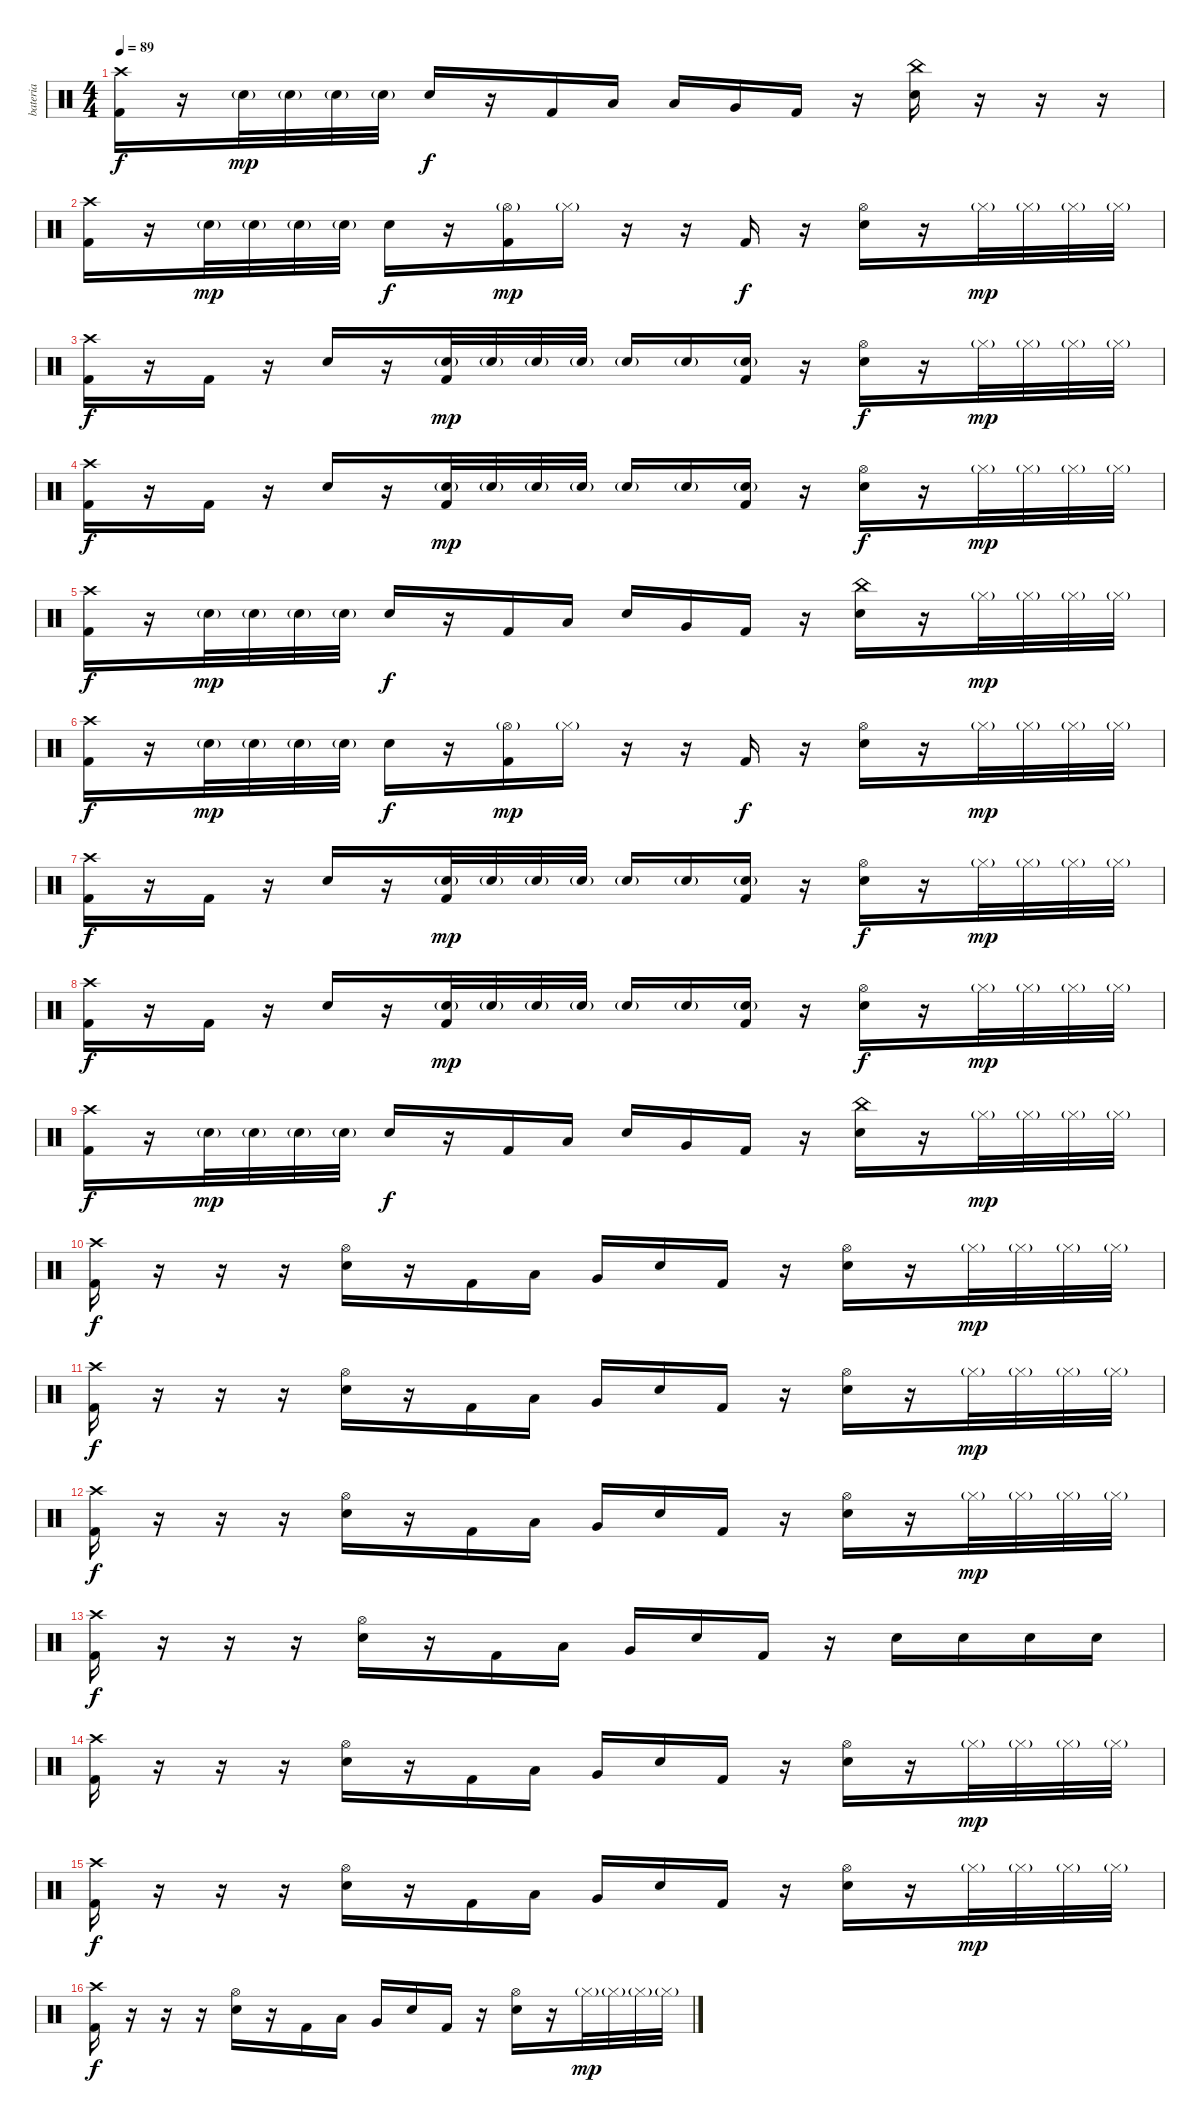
\track ("bateria" "bateria") {instrument percussion}
\staff {score}
\articulation defaults
\ts (4 4)
\tempo 89
\clef neutral
\ks c
("Crash high (hit)" "Kick (hit) 2").16{dy f} r.16 "Electric Snare (hit)"{g}.32{dy mp} "Electric Snare (hit)"{g}.32 "Electric Snare (hit)"{g}.32 "Electric Snare (hit)"{g}.32 "Electric Snare (hit)".16{dy f} r.16 "Kick (hit) 2".16 "Low Tom (hit)".16 "Low Tom (hit)".16 "Very Low Tom (hit)".16 "Kick (hit) 2".16 r.16 ("China (hit)" "Electric Snare (hit)").16 r.16 r.16 r.16 |
("Crash high (hit)" "Kick (hit) 2").16 r.16 "Electric Snare (hit)"{g}.32{dy mp} "Electric Snare (hit)"{g}.32 "Electric Snare (hit)"{g}.32 "Electric Snare (hit)"{g}.32 "Electric Snare (hit)".16{dy f} r.16 ("Hi-Hat (open)"{g} "Kick (hit) 2").16{dy mp} "Hi-Hat (closed)"{g}.16 r.16 r.16 "Kick (hit) 2".16{dy f} r.16 ("Hi-Hat (open)" "Electric Snare (hit)").16 r.16 "Hi-Hat (closed)"{g}.32{dy mp} "Hi-Hat (closed)"{g}.32 "Hi-Hat (closed)"{g}.32 "Hi-Hat (closed)"{g}.32 |
("Crash high (hit)" "Kick (hit) 2").16{dy f} r.16 "Kick (hit) 2".16 r.16 "Electric Snare (hit)".16 r.16 ("Electric Snare (hit)"{g} "Kick (hit) 2").32{dy mp} "Electric Snare (hit)"{g}.32 "Electric Snare (hit)"{g}.32 "Electric Snare (hit)"{g}.32 "Electric Snare (hit)"{g}.16 "Electric Snare (hit)"{g}.16 ("Electric Snare (hit)"{g} "Kick (hit) 2").16 r.16 ("Hi-Hat (open)" "Electric Snare (hit)").16{dy f} r.16 "Hi-Hat (closed)"{g}.32{dy mp} "Hi-Hat (closed)"{g}.32 "Hi-Hat (closed)"{g}.32 "Hi-Hat (closed)"{g}.32 |
("Crash high (hit)" "Kick (hit) 2").16{dy f} r.16 "Kick (hit) 2".16 r.16 "Electric Snare (hit)".16 r.16 ("Electric Snare (hit)"{g} "Kick (hit) 2").32{dy mp} "Electric Snare (hit)"{g}.32 "Electric Snare (hit)"{g}.32 "Electric Snare (hit)"{g}.32 "Electric Snare (hit)"{g}.16 "Electric Snare (hit)"{g}.16 ("Electric Snare (hit)"{g} "Kick (hit) 2").16 r.16 ("Hi-Hat (open)" "Electric Snare (hit)").16{dy f} r.16 "Hi-Hat (closed)"{g}.32{dy mp} "Hi-Hat (closed)"{g}.32 "Hi-Hat (closed)"{g}.32 "Hi-Hat (closed)"{g}.32 |
("Crash high (hit)" "Kick (hit) 2").16{dy f} r.16 "Electric Snare (hit)"{g}.32{dy mp} "Electric Snare (hit)"{g}.32 "Electric Snare (hit)"{g}.32 "Electric Snare (hit)"{g}.32 "Electric Snare (hit)".16{dy f} r.16 "Kick (hit) 2".16 "Low Tom (hit)".16 "Electric Snare (hit)".16 "Very Low Tom (hit)".16 "Kick (hit) 2".16 r.16 ("China (hit)" "Electric Snare (hit)").16 r.16 "Hi-Hat (closed)"{g}.32{dy mp} "Hi-Hat (closed)"{g}.32 "Hi-Hat (closed)"{g}.32 "Hi-Hat (closed)"{g}.32 |
("Crash high (hit)" "Kick (hit) 2").16{dy f} r.16 "Electric Snare (hit)"{g}.32{dy mp} "Electric Snare (hit)"{g}.32 "Electric Snare (hit)"{g}.32 "Electric Snare (hit)"{g}.32 "Electric Snare (hit)".16{dy f} r.16 ("Hi-Hat (open)"{g} "Kick (hit) 2").16{dy mp} "Hi-Hat (closed)"{g}.16 r.16 r.16 "Kick (hit) 2".16{dy f} r.16 ("Hi-Hat (open)" "Electric Snare (hit)").16 r.16 "Hi-Hat (closed)"{g}.32{dy mp} "Hi-Hat (closed)"{g}.32 "Hi-Hat (closed)"{g}.32 "Hi-Hat (closed)"{g}.32 |
("Crash high (hit)" "Kick (hit) 2").16{dy f} r.16 "Kick (hit) 2".16 r.16 "Electric Snare (hit)".16 r.16 ("Electric Snare (hit)"{g} "Kick (hit) 2").32{dy mp} "Electric Snare (hit)"{g}.32 "Electric Snare (hit)"{g}.32 "Electric Snare (hit)"{g}.32 "Electric Snare (hit)"{g}.16 "Electric Snare (hit)"{g}.16 ("Electric Snare (hit)"{g} "Kick (hit) 2").16 r.16 ("Hi-Hat (open)" "Electric Snare (hit)").16{dy f} r.16 "Hi-Hat (closed)"{g}.32{dy mp} "Hi-Hat (closed)"{g}.32 "Hi-Hat (closed)"{g}.32 "Hi-Hat (closed)"{g}.32 |
("Crash high (hit)" "Kick (hit) 2").16{dy f} r.16 "Kick (hit) 2".16 r.16 "Electric Snare (hit)".16 r.16 ("Electric Snare (hit)"{g} "Kick (hit) 2").32{dy mp} "Electric Snare (hit)"{g}.32 "Electric Snare (hit)"{g}.32 "Electric Snare (hit)"{g}.32 "Electric Snare (hit)"{g}.16 "Electric Snare (hit)"{g}.16 ("Electric Snare (hit)"{g} "Kick (hit) 2").16 r.16 ("Hi-Hat (open)" "Electric Snare (hit)").16{dy f} r.16 "Hi-Hat (closed)"{g}.32{dy mp} "Hi-Hat (closed)"{g}.32 "Hi-Hat (closed)"{g}.32 "Hi-Hat (closed)"{g}.32 |
("Crash high (hit)" "Kick (hit) 2").16{dy f} r.16 "Electric Snare (hit)"{g}.32{dy mp} "Electric Snare (hit)"{g}.32 "Electric Snare (hit)"{g}.32 "Electric Snare (hit)"{g}.32 "Electric Snare (hit)".16{dy f} r.16 "Kick (hit) 2".16 "Low Tom (hit)".16 "Electric Snare (hit)".16 "Very Low Tom (hit)".16 "Kick (hit) 2".16 r.16 ("China (hit)" "Electric Snare (hit)").16 r.16 "Hi-Hat (closed)"{g}.32{dy mp} "Hi-Hat (closed)"{g}.32 "Hi-Hat (closed)"{g}.32 "Hi-Hat (closed)"{g}.32 |
("Crash high (hit)" "Kick (hit) 2").16{dy f} r.16 r.16 r.16 ("Hi-Hat (open)" "Electric Snare (hit)").16 r.16 "Kick (hit) 2".16 "Low Tom (hit)".16 "Very Low Tom (hit)".16 "Electric Snare (hit)".16 "Kick (hit) 2".16 r.16 ("Hi-Hat (open)" "Electric Snare (hit)").16 r.16 "Hi-Hat (closed)"{g}.32{dy mp} "Hi-Hat (closed)"{g}.32 "Hi-Hat (closed)"{g}.32 "Hi-Hat (closed)"{g}.32 |
("Crash high (hit)" "Kick (hit) 2").16{dy f} r.16 r.16 r.16 ("Hi-Hat (open)" "Electric Snare (hit)").16 r.16 "Kick (hit) 2".16 "Low Tom (hit)".16 "Very Low Tom (hit)".16 "Electric Snare (hit)".16 "Kick (hit) 2".16 r.16 ("Hi-Hat (open)" "Electric Snare (hit)").16 r.16 "Hi-Hat (closed)"{g}.32{dy mp} "Hi-Hat (closed)"{g}.32 "Hi-Hat (closed)"{g}.32 "Hi-Hat (closed)"{g}.32 |
("Crash high (hit)" "Kick (hit) 2").16{dy f} r.16 r.16 r.16 ("Hi-Hat (open)" "Electric Snare (hit)").16 r.16 "Kick (hit) 2".16 "Low Tom (hit)".16 "Very Low Tom (hit)".16 "Electric Snare (hit)".16 "Kick (hit) 2".16 r.16 ("Hi-Hat (open)" "Electric Snare (hit)").16 r.16 "Hi-Hat (closed)"{g}.32{dy mp} "Hi-Hat (closed)"{g}.32 "Hi-Hat (closed)"{g}.32 "Hi-Hat (closed)"{g}.32 |
("Crash high (hit)" "Kick (hit) 2").16{dy f} r.16 r.16 r.16 ("Hi-Hat (open)" "Electric Snare (hit)").16 r.16 "Kick (hit) 2".16 "Low Tom (hit)".16 "Very Low Tom (hit)".16 "Electric Snare (hit)".16 "Kick (hit) 2".16 r.16 "Electric Snare (hit)".16 "Electric Snare (hit)".16 "Electric Snare (hit)".16 "Electric Snare (hit)".16 |
("Crash high (hit)" "Kick (hit) 2").16 r.16 r.16 r.16 ("Hi-Hat (open)" "Electric Snare (hit)").16 r.16 "Kick (hit) 2".16 "Low Tom (hit)".16 "Very Low Tom (hit)".16 "Electric Snare (hit)".16 "Kick (hit) 2".16 r.16 ("Hi-Hat (open)" "Electric Snare (hit)").16 r.16 "Hi-Hat (closed)"{g}.32{dy mp} "Hi-Hat (closed)"{g}.32 "Hi-Hat (closed)"{g}.32 "Hi-Hat (closed)"{g}.32 |
("Crash high (hit)" "Kick (hit) 2").16{dy f} r.16 r.16 r.16 ("Hi-Hat (open)" "Electric Snare (hit)").16 r.16 "Kick (hit) 2".16 "Low Tom (hit)".16 "Very Low Tom (hit)".16 "Electric Snare (hit)".16 "Kick (hit) 2".16 r.16 ("Hi-Hat (open)" "Electric Snare (hit)").16 r.16 "Hi-Hat (closed)"{g}.32{dy mp} "Hi-Hat (closed)"{g}.32 "Hi-Hat (closed)"{g}.32 "Hi-Hat (closed)"{g}.32 |
("Crash high (hit)" "Kick (hit) 2").16{dy f} r.16 r.16 r.16 ("Hi-Hat (open)" "Electric Snare (hit)").16 r.16 "Kick (hit) 2".16 "Low Tom (hit)".16 "Very Low Tom (hit)".16 "Electric Snare (hit)".16 "Kick (hit) 2".16 r.16 ("Hi-Hat (open)" "Electric Snare (hit)").16 r.16 "Hi-Hat (closed)"{g}.32{dy mp} "Hi-Hat (closed)"{g}.32 "Hi-Hat (closed)"{g}.32 "Hi-Hat (closed)"{g}.32
